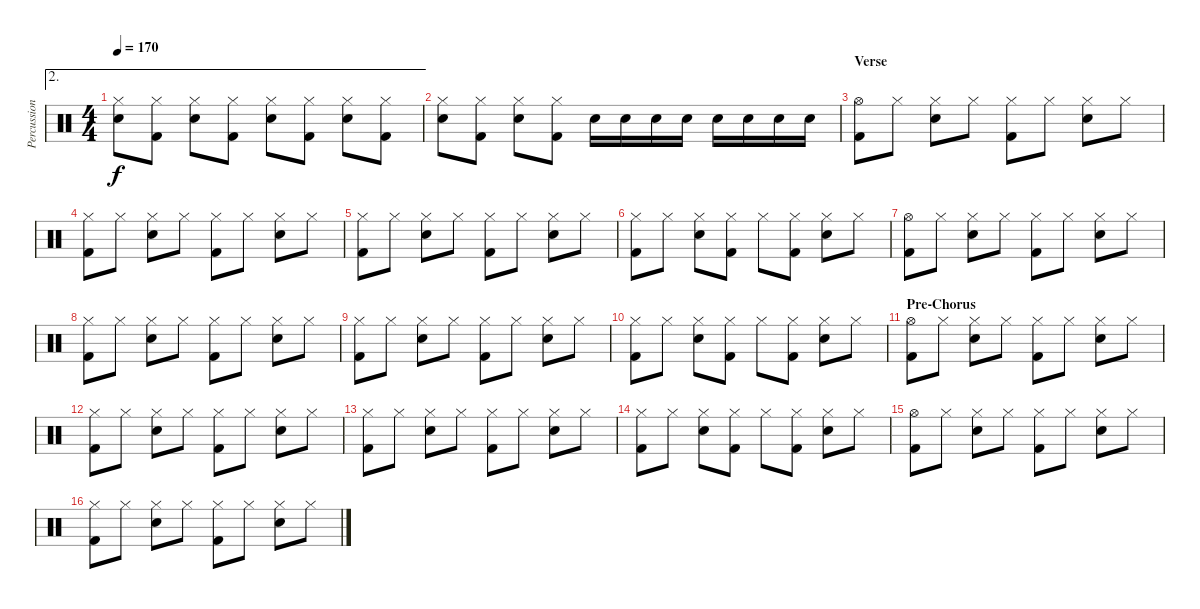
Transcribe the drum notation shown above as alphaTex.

\track ("Percussions" "Percussion") {instrument percussion}
\staff {score}
\articulation defaults
\ae 2
\ts (4 4)
\tempo 170
\clef neutral
\ks c
("Hi-Hat (closed)" "Snare (hit) 2").8{dy f} ("Hi-Hat (closed)" "Kick (hit) 2").8 ("Hi-Hat (closed)" "Snare (hit) 2").8 ("Hi-Hat (closed)" "Kick (hit) 2").8 ("Hi-Hat (closed)" "Snare (hit) 2").8 ("Hi-Hat (closed)" "Kick (hit) 2").8 ("Hi-Hat (closed)" "Snare (hit) 2").8 ("Hi-Hat (closed)" "Kick (hit) 2").8 |
("Hi-Hat (closed)" "Snare (hit) 2").8 ("Hi-Hat (closed)" "Kick (hit) 2").8 ("Hi-Hat (closed)" "Snare (hit) 2").8 ("Hi-Hat (closed)" "Kick (hit) 2").8 "Snare (hit) 2".16 "Snare (hit) 2".16 "Snare (hit) 2".16 "Snare (hit) 2".16 "Snare (hit) 2".16 "Snare (hit) 2".16 "Snare (hit) 2".16 "Snare (hit) 2".16 |
\section ("" "Verse")
("Hi-Hat (open)" "Kick (hit) 2").8 "Hi-Hat (closed)".8 ("Hi-Hat (closed)" "Snare (hit) 2").8 "Hi-Hat (closed)".8 ("Hi-Hat (closed)" "Kick (hit) 2").8 "Hi-Hat (closed)".8 ("Hi-Hat (closed)" "Snare (hit) 2").8 "Hi-Hat (closed)".8 |
("Hi-Hat (closed)" "Kick (hit) 2").8 "Hi-Hat (closed)".8 ("Hi-Hat (closed)" "Snare (hit) 2").8 "Hi-Hat (closed)".8 ("Hi-Hat (closed)" "Kick (hit) 2").8 "Hi-Hat (closed)".8 ("Hi-Hat (closed)" "Snare (hit) 2").8 "Hi-Hat (closed)".8 |
("Hi-Hat (closed)" "Kick (hit) 2").8 "Hi-Hat (closed)".8 ("Hi-Hat (closed)" "Snare (hit) 2").8 "Hi-Hat (closed)".8 ("Hi-Hat (closed)" "Kick (hit) 2").8 "Hi-Hat (closed)".8 ("Hi-Hat (closed)" "Snare (hit) 2").8 "Hi-Hat (closed)".8 |
("Hi-Hat (closed)" "Kick (hit) 2").8 "Hi-Hat (closed)".8 ("Hi-Hat (closed)" "Snare (hit) 2").8 ("Hi-Hat (closed)" "Kick (hit) 2").8 "Hi-Hat (closed)".8 ("Hi-Hat (closed)" "Kick (hit) 2").8 ("Hi-Hat (closed)" "Snare (hit) 2").8 "Hi-Hat (closed)".8 |
("Hi-Hat (open)" "Kick (hit) 2").8 "Hi-Hat (closed)".8 ("Hi-Hat (closed)" "Snare (hit) 2").8 "Hi-Hat (closed)".8 ("Hi-Hat (closed)" "Kick (hit) 2").8 "Hi-Hat (closed)".8 ("Hi-Hat (closed)" "Snare (hit) 2").8 "Hi-Hat (closed)".8 |
("Hi-Hat (closed)" "Kick (hit) 2").8 "Hi-Hat (closed)".8 ("Hi-Hat (closed)" "Snare (hit) 2").8 "Hi-Hat (closed)".8 ("Hi-Hat (closed)" "Kick (hit) 2").8 "Hi-Hat (closed)".8 ("Hi-Hat (closed)" "Snare (hit) 2").8 "Hi-Hat (closed)".8 |
("Hi-Hat (closed)" "Kick (hit) 2").8 "Hi-Hat (closed)".8 ("Hi-Hat (closed)" "Snare (hit) 2").8 "Hi-Hat (closed)".8 ("Hi-Hat (closed)" "Kick (hit) 2").8 "Hi-Hat (closed)".8 ("Hi-Hat (closed)" "Snare (hit) 2").8 "Hi-Hat (closed)".8 |
("Hi-Hat (closed)" "Kick (hit) 2").8 "Hi-Hat (closed)".8 ("Hi-Hat (closed)" "Snare (hit) 2").8 ("Hi-Hat (closed)" "Kick (hit) 2").8 "Hi-Hat (closed)".8 ("Hi-Hat (closed)" "Kick (hit) 2").8 ("Hi-Hat (closed)" "Snare (hit) 2").8 "Hi-Hat (closed)".8 |
\section ("" "Pre-Chorus")
("Hi-Hat (open)" "Kick (hit) 2").8 "Hi-Hat (closed)".8 ("Hi-Hat (closed)" "Snare (hit) 2").8 "Hi-Hat (closed)".8 ("Hi-Hat (closed)" "Kick (hit) 2").8 "Hi-Hat (closed)".8 ("Hi-Hat (closed)" "Snare (hit) 2").8 "Hi-Hat (closed)".8 |
("Hi-Hat (closed)" "Kick (hit) 2").8 "Hi-Hat (closed)".8 ("Hi-Hat (closed)" "Snare (hit) 2").8 "Hi-Hat (closed)".8 ("Hi-Hat (closed)" "Kick (hit) 2").8 "Hi-Hat (closed)".8 ("Hi-Hat (closed)" "Snare (hit) 2").8 "Hi-Hat (closed)".8 |
("Hi-Hat (closed)" "Kick (hit) 2").8 "Hi-Hat (closed)".8 ("Hi-Hat (closed)" "Snare (hit) 2").8 "Hi-Hat (closed)".8 ("Hi-Hat (closed)" "Kick (hit) 2").8 "Hi-Hat (closed)".8 ("Hi-Hat (closed)" "Snare (hit) 2").8 "Hi-Hat (closed)".8 |
("Hi-Hat (closed)" "Kick (hit) 2").8 "Hi-Hat (closed)".8 ("Hi-Hat (closed)" "Snare (hit) 2").8 ("Hi-Hat (closed)" "Kick (hit) 2").8 "Hi-Hat (closed)".8 ("Hi-Hat (closed)" "Kick (hit) 2").8 ("Hi-Hat (closed)" "Snare (hit) 2").8 "Hi-Hat (closed)".8 |
("Hi-Hat (open)" "Kick (hit) 2").8 "Hi-Hat (closed)".8 ("Hi-Hat (closed)" "Snare (hit) 2").8 "Hi-Hat (closed)".8 ("Hi-Hat (closed)" "Kick (hit) 2").8 "Hi-Hat (closed)".8 ("Hi-Hat (closed)" "Snare (hit) 2").8 "Hi-Hat (closed)".8 |
("Hi-Hat (closed)" "Kick (hit) 2").8 "Hi-Hat (closed)".8 ("Hi-Hat (closed)" "Snare (hit) 2").8 "Hi-Hat (closed)".8 ("Hi-Hat (closed)" "Kick (hit) 2").8 "Hi-Hat (closed)".8 ("Hi-Hat (closed)" "Snare (hit) 2").8 "Hi-Hat (closed)".8
